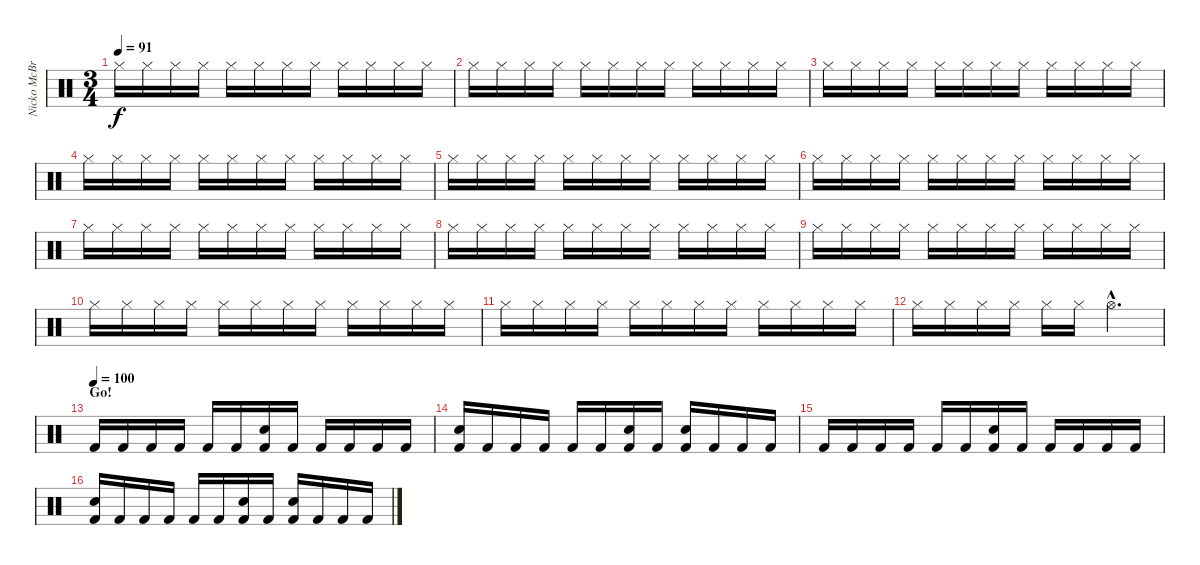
\track ("Nicko McBrain" "Nicko McBr") {instrument percussion}
\staff {score}
\articulation defaults
\ts (3 4)
\tempo 91
\clef neutral
\ks c "Hi-Hat (closed)".16{dy f} "Hi-Hat (closed)".16 "Hi-Hat (closed)".16 "Hi-Hat (closed)".16 "Hi-Hat (closed)".16 "Hi-Hat (closed)".16 "Hi-Hat (closed)".16 "Hi-Hat (closed)".16 "Hi-Hat (closed)".16 "Hi-Hat (closed)".16 "Hi-Hat (closed)".16 "Hi-Hat (closed)".16
|
"Hi-Hat (closed)".16 "Hi-Hat (closed)".16 "Hi-Hat (closed)".16 "Hi-Hat (closed)".16 "Hi-Hat (closed)".16 "Hi-Hat (closed)".16 "Hi-Hat (closed)".16 "Hi-Hat (closed)".16 "Hi-Hat (closed)".16 "Hi-Hat (closed)".16 "Hi-Hat (closed)".16 "Hi-Hat (closed)".16 |
"Hi-Hat (closed)".16 "Hi-Hat (closed)".16 "Hi-Hat (closed)".16 "Hi-Hat (closed)".16 "Hi-Hat (closed)".16 "Hi-Hat (closed)".16 "Hi-Hat (closed)".16 "Hi-Hat (closed)".16 "Hi-Hat (closed)".16 "Hi-Hat (closed)".16 "Hi-Hat (closed)".16 "Hi-Hat (closed)".16 |
"Hi-Hat (closed)".16 "Hi-Hat (closed)".16 "Hi-Hat (closed)".16 "Hi-Hat (closed)".16 "Hi-Hat (closed)".16 "Hi-Hat (closed)".16 "Hi-Hat (closed)".16 "Hi-Hat (closed)".16 "Hi-Hat (closed)".16 "Hi-Hat (closed)".16 "Hi-Hat (closed)".16 "Hi-Hat (closed)".16 |
"Hi-Hat (closed)".16 "Hi-Hat (closed)".16 "Hi-Hat (closed)".16 "Hi-Hat (closed)".16 "Hi-Hat (closed)".16 "Hi-Hat (closed)".16 "Hi-Hat (closed)".16 "Hi-Hat (closed)".16 "Hi-Hat (closed)".16 "Hi-Hat (closed)".16 "Hi-Hat (closed)".16 "Hi-Hat (closed)".16 |
"Hi-Hat (closed)".16 "Hi-Hat (closed)".16 "Hi-Hat (closed)".16 "Hi-Hat (closed)".16 "Hi-Hat (closed)".16 "Hi-Hat (closed)".16 "Hi-Hat (closed)".16 "Hi-Hat (closed)".16 "Hi-Hat (closed)".16 "Hi-Hat (closed)".16 "Hi-Hat (closed)".16 "Hi-Hat (closed)".16 |
"Hi-Hat (closed)".16 "Hi-Hat (closed)".16 "Hi-Hat (closed)".16 "Hi-Hat (closed)".16 "Hi-Hat (closed)".16 "Hi-Hat (closed)".16 "Hi-Hat (closed)".16 "Hi-Hat (closed)".16 "Hi-Hat (closed)".16 "Hi-Hat (closed)".16 "Hi-Hat (closed)".16 "Hi-Hat (closed)".16 |
"Hi-Hat (closed)".16 "Hi-Hat (closed)".16 "Hi-Hat (closed)".16 "Hi-Hat (closed)".16 "Hi-Hat (closed)".16 "Hi-Hat (closed)".16 "Hi-Hat (closed)".16 "Hi-Hat (closed)".16 "Hi-Hat (closed)".16 "Hi-Hat (closed)".16 "Hi-Hat (closed)".16 "Hi-Hat (closed)".16 |
"Hi-Hat (closed)".16 "Hi-Hat (closed)".16 "Hi-Hat (closed)".16 "Hi-Hat (closed)".16 "Hi-Hat (closed)".16 "Hi-Hat (closed)".16 "Hi-Hat (closed)".16 "Hi-Hat (closed)".16 "Hi-Hat (closed)".16 "Hi-Hat (closed)".16 "Hi-Hat (closed)".16 "Hi-Hat (closed)".16 |
"Hi-Hat (closed)".16 "Hi-Hat (closed)".16 "Hi-Hat (closed)".16 "Hi-Hat (closed)".16 "Hi-Hat (closed)".16 "Hi-Hat (closed)".16 "Hi-Hat (closed)".16 "Hi-Hat (closed)".16 "Hi-Hat (closed)".16 "Hi-Hat (closed)".16 "Hi-Hat (closed)".16 "Hi-Hat (closed)".16 |
"Hi-Hat (closed)".16 "Hi-Hat (closed)".16 "Hi-Hat (closed)".16 "Hi-Hat (closed)".16 "Hi-Hat (closed)".16 "Hi-Hat (closed)".16 "Hi-Hat (closed)".16 "Hi-Hat (closed)".16 "Hi-Hat (closed)".16 "Hi-Hat (closed)".16 "Hi-Hat (closed)".16 "Hi-Hat (closed)".16 |
"Hi-Hat (closed)".16 "Hi-Hat (closed)".16 "Hi-Hat (closed)".16 "Hi-Hat (closed)".16 "Hi-Hat (closed)".16 "Hi-Hat (closed)".16 "Hi-Hat (open)"{hac}.4{d} |
\section ("" "Go!")
\tempo (100)
"Kick (hit) 2".16{volume 14} "Kick (hit) 2".16 "Kick (hit) 2".16 "Kick (hit) 2".16 "Kick (hit) 2".16 "Kick (hit) 2".16 ("Electric Snare (hit)" "Kick (hit) 2").16 "Kick (hit) 2".16 "Kick (hit) 2".16 "Kick (hit) 2".16 "Kick (hit) 2".16 "Kick (hit) 2".16 |
("Electric Snare (hit)" "Kick (hit) 2").16 "Kick (hit) 2".16 "Kick (hit) 2".16 "Kick (hit) 2".16 "Kick (hit) 2".16 "Kick (hit) 2".16 ("Electric Snare (hit)" "Kick (hit) 2").16 "Kick (hit) 2".16 ("Electric Snare (hit)" "Kick (hit) 2").16 "Kick (hit) 2".16 "Kick (hit) 2".16 "Kick (hit) 2".16 |
"Kick (hit) 2".16 "Kick (hit) 2".16 "Kick (hit) 2".16 "Kick (hit) 2".16 "Kick (hit) 2".16 "Kick (hit) 2".16 ("Electric Snare (hit)" "Kick (hit) 2").16 "Kick (hit) 2".16 "Kick (hit) 2".16 "Kick (hit) 2".16 "Kick (hit) 2".16 "Kick (hit) 2".16 |
("Electric Snare (hit)" "Kick (hit) 2").16 "Kick (hit) 2".16 "Kick (hit) 2".16 "Kick (hit) 2".16 "Kick (hit) 2".16 "Kick (hit) 2".16 ("Electric Snare (hit)" "Kick (hit) 2").16 "Kick (hit) 2".16 ("Electric Snare (hit)" "Kick (hit) 2").16 "Kick (hit) 2".16 "Kick (hit) 2".16 "Kick (hit) 2".16
